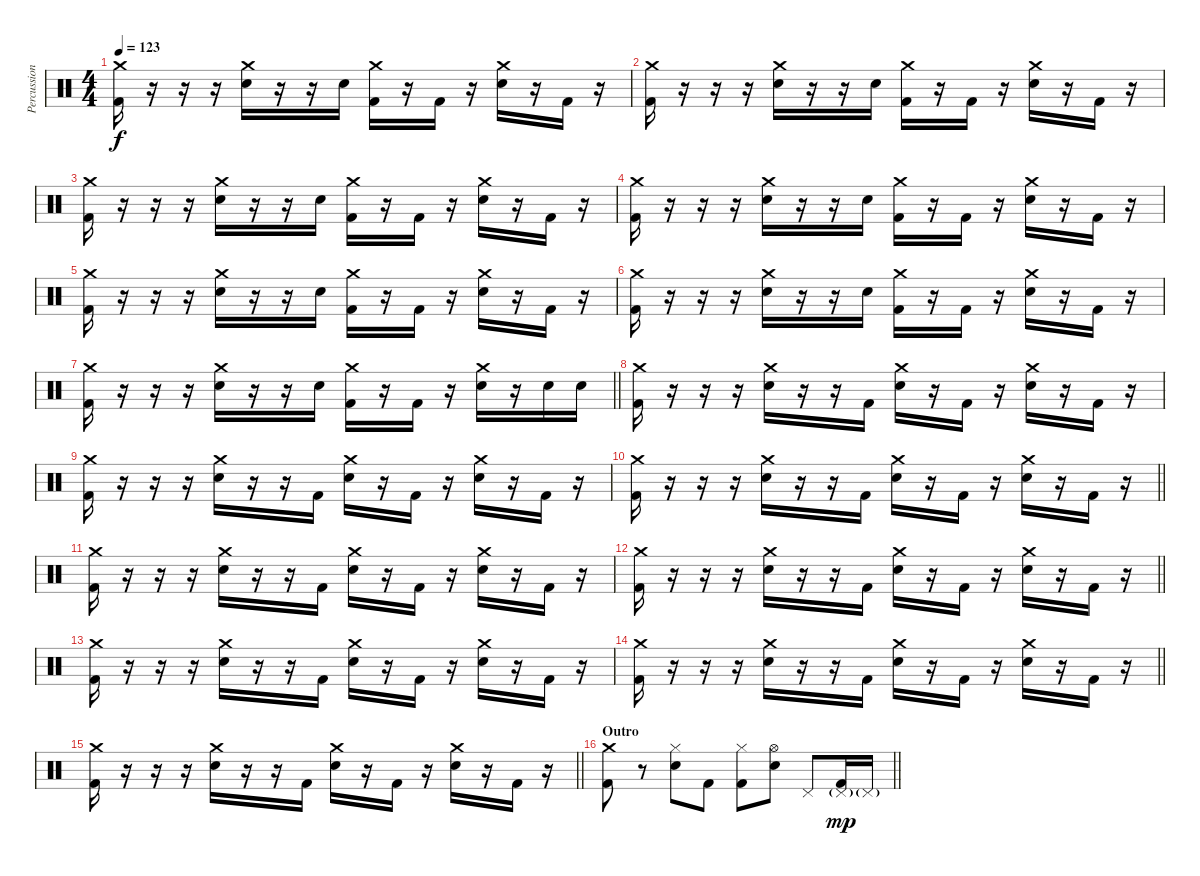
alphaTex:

\track ("Percussion" "Percussion") {instrument percussion}
\staff {score}
\articulation defaults
\ts (4 4)
\tempo 123
\clef neutral
\ks c
("Crash medium (hit)" "Kick (hit) 2").16{dy f} r.16 r.16 r.16 ("Crash medium (hit)" "Electric Snare (hit)").16 r.16 r.16 "Electric Snare (hit)".16 ("Crash medium (hit)" "Kick (hit) 2").16 r.16 "Kick (hit) 2".16 r.16 ("Crash medium (hit)" "Electric Snare (hit)").16 r.16 "Kick (hit) 2".16 r.16 |
("Crash medium (hit)" "Kick (hit) 2").16 r.16 r.16 r.16 ("Crash medium (hit)" "Electric Snare (hit)").16 r.16 r.16 "Electric Snare (hit)".16 ("Crash medium (hit)" "Kick (hit) 2").16 r.16 "Kick (hit) 2".16 r.16 ("Crash medium (hit)" "Electric Snare (hit)").16 r.16 "Kick (hit) 2".16 r.16 |
("Crash medium (hit)" "Kick (hit) 2").16 r.16 r.16 r.16 ("Crash medium (hit)" "Electric Snare (hit)").16 r.16 r.16 "Electric Snare (hit)".16 ("Crash medium (hit)" "Kick (hit) 2").16 r.16 "Kick (hit) 2".16 r.16 ("Crash medium (hit)" "Electric Snare (hit)").16 r.16 "Kick (hit) 2".16 r.16 |
("Crash medium (hit)" "Kick (hit) 2").16 r.16 r.16 r.16 ("Crash medium (hit)" "Electric Snare (hit)").16 r.16 r.16 "Electric Snare (hit)".16 ("Crash medium (hit)" "Kick (hit) 2").16 r.16 "Kick (hit) 2".16 r.16 ("Crash medium (hit)" "Electric Snare (hit)").16 r.16 "Kick (hit) 2".16 r.16 |
("Crash medium (hit)" "Kick (hit) 2").16 r.16 r.16 r.16 ("Crash medium (hit)" "Electric Snare (hit)").16 r.16 r.16 "Electric Snare (hit)".16 ("Crash medium (hit)" "Kick (hit) 2").16 r.16 "Kick (hit) 2".16 r.16 ("Crash medium (hit)" "Electric Snare (hit)").16 r.16 "Kick (hit) 2".16 r.16 |
("Crash medium (hit)" "Kick (hit) 2").16 r.16 r.16 r.16 ("Crash medium (hit)" "Electric Snare (hit)").16 r.16 r.16 "Electric Snare (hit)".16 ("Crash medium (hit)" "Kick (hit) 2").16 r.16 "Kick (hit) 2".16 r.16 ("Crash medium (hit)" "Electric Snare (hit)").16 r.16 "Kick (hit) 2".16 r.16 |
\barLineRight lightlight
("Crash medium (hit)" "Kick (hit) 2").16 r.16 r.16 r.16 ("Crash medium (hit)" "Electric Snare (hit)").16 r.16 r.16 "Electric Snare (hit)".16 ("Crash medium (hit)" "Kick (hit) 2").16 r.16 "Kick (hit) 2".16 r.16 ("Crash medium (hit)" "Electric Snare (hit)").16 r.16 "Electric Snare (hit)".16 "Electric Snare (hit)".16 |
\section ("" "")
("Crash medium (hit)" "Kick (hit) 2").16 r.16 r.16 r.16 ("Crash medium (hit)" "Electric Snare (hit)").16 r.16 r.16 "Kick (hit) 2".16 ("Crash medium (hit)" "Electric Snare (hit)").16 r.16 "Kick (hit) 2".16 r.16 ("Crash medium (hit)" "Electric Snare (hit)").16 r.16 "Kick (hit) 2".16 r.16 |
("Crash medium (hit)" "Kick (hit) 2").16 r.16 r.16 r.16 ("Crash medium (hit)" "Electric Snare (hit)").16 r.16 r.16 "Kick (hit) 2".16 ("Crash medium (hit)" "Electric Snare (hit)").16 r.16 "Kick (hit) 2".16 r.16 ("Crash medium (hit)" "Electric Snare (hit)").16 r.16 "Kick (hit) 2".16 r.16 |
\barLineRight lightlight
("Crash medium (hit)" "Kick (hit) 2").16 r.16 r.16 r.16 ("Crash medium (hit)" "Electric Snare (hit)").16 r.16 r.16 "Kick (hit) 2".16 ("Crash medium (hit)" "Electric Snare (hit)").16 r.16 "Kick (hit) 2".16 r.16 ("Crash medium (hit)" "Electric Snare (hit)").16 r.16 "Kick (hit) 2".16 r.16 |
("Crash medium (hit)" "Kick (hit) 2").16 r.16 r.16 r.16 ("Crash medium (hit)" "Electric Snare (hit)").16 r.16 r.16 "Kick (hit) 2".16 ("Crash medium (hit)" "Electric Snare (hit)").16 r.16 "Kick (hit) 2".16 r.16 ("Crash medium (hit)" "Electric Snare (hit)").16 r.16 "Kick (hit) 2".16 r.16 |
\barLineRight lightlight
("Crash medium (hit)" "Kick (hit) 2").16 r.16 r.16 r.16 ("Crash medium (hit)" "Electric Snare (hit)").16 r.16 r.16 "Kick (hit) 2".16 ("Crash medium (hit)" "Electric Snare (hit)").16 r.16 "Kick (hit) 2".16 r.16 ("Crash medium (hit)" "Electric Snare (hit)").16 r.16 "Kick (hit) 2".16 r.16 |
("Crash medium (hit)" "Kick (hit) 2").16 r.16 r.16 r.16 ("Crash medium (hit)" "Electric Snare (hit)").16 r.16 r.16 "Kick (hit) 2".16 ("Crash medium (hit)" "Electric Snare (hit)").16 r.16 "Kick (hit) 2".16 r.16 ("Crash medium (hit)" "Electric Snare (hit)").16 r.16 "Kick (hit) 2".16 r.16 |
\barLineRight lightlight
("Crash medium (hit)" "Kick (hit) 2").16 r.16 r.16 r.16 ("Crash medium (hit)" "Electric Snare (hit)").16 r.16 r.16 "Kick (hit) 2".16 ("Crash medium (hit)" "Electric Snare (hit)").16 r.16 "Kick (hit) 2".16 r.16 ("Crash medium (hit)" "Electric Snare (hit)").16 r.16 "Kick (hit) 2".16 r.16 |
\barLineRight lightlight
("Crash medium (hit)" "Kick (hit) 2").16 r.16 r.16 r.16 ("Crash medium (hit)" "Electric Snare (hit)").16 r.16 r.16 "Kick (hit) 2".16 ("Crash medium (hit)" "Electric Snare (hit)").16 r.16 "Kick (hit) 2".16 r.16 ("Crash medium (hit)" "Electric Snare (hit)").16 r.16 "Kick (hit) 2".16 r.16 |
\section ("" "Outro")
\barLineRight lightlight
("Crash medium (hit)" "Kick (hit) 2").8 r.8 ("Hi-Hat (closed)" "Electric Snare (hit)").8 "Kick (hit) 2".8 ("Hi-Hat (closed)" "Kick (hit) 2").8 ("Hi-Hat (open)" "Electric Snare (hit)").8 "Pedal Hi-Hat (hit)".8 ("Pedal Hi-Hat (hit)"{g} "Kick (hit) 2").16{dy mp} "Pedal Hi-Hat (hit)"{g}.16
